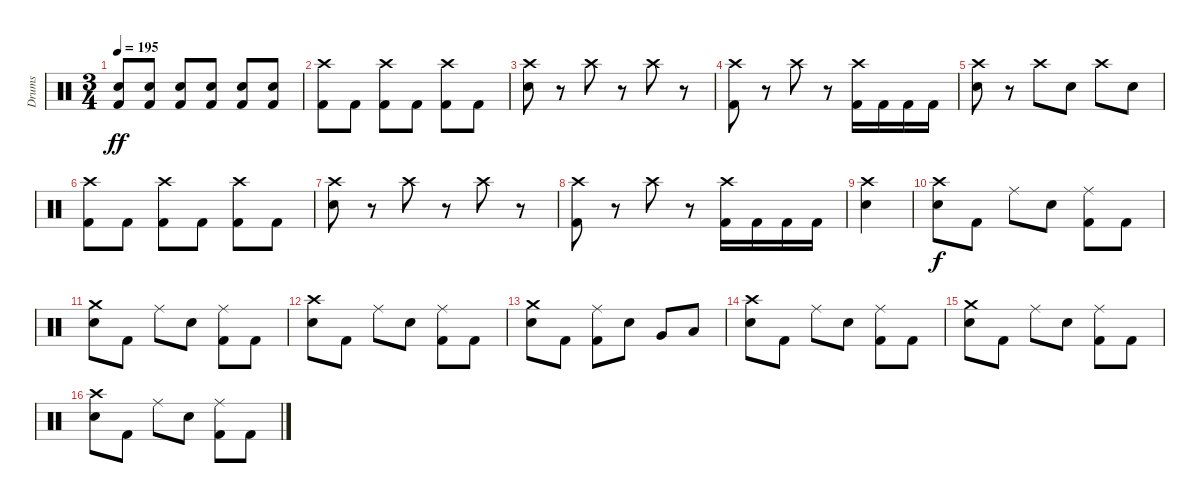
\track ("Drums" "Drums") {instrument percussion}
\staff {score}
\articulation defaults
\ts (3 4)
\tempo 195
\clef neutral
\ks c
("Electric Snare (hit)" "Kick (hit) 2").8{dy ff} ("Electric Snare (hit)" "Kick (hit) 2").8 ("Electric Snare (hit)" "Kick (hit) 2").8 ("Electric Snare (hit)" "Kick (hit) 2").8 ("Electric Snare (hit)" "Kick (hit) 2").8 ("Electric Snare (hit)" "Kick (hit) 2").8 |
("Crash high (hit)" "Kick (hit) 2").8 "Kick (hit) 2".8 ("Crash high (hit)" "Kick (hit) 2").8 "Kick (hit) 2".8 ("Crash high (hit)" "Kick (hit) 2").8 "Kick (hit) 2".8 |
("Crash high (hit)" "Electric Snare (hit)").8 r.8 "Crash high (hit)".8 r.8 "Crash high (hit)".8 r.8 |
("Crash high (hit)" "Kick (hit) 2").8 r.8 "Crash high (hit)".8 r.8 ("Crash high (hit)" "Kick (hit) 2").16 "Kick (hit) 2".16 "Kick (hit) 2".16 "Kick (hit) 2".16 |
("Crash high (hit)" "Electric Snare (hit)").8 r.8 "Crash high (hit)".8 "Electric Snare (hit)".8 "Crash high (hit)".8 "Electric Snare (hit)".8 |
("Crash high (hit)" "Kick (hit) 2").8 "Kick (hit) 2".8 ("Crash high (hit)" "Kick (hit) 2").8 "Kick (hit) 2".8 ("Crash high (hit)" "Kick (hit) 2").8 "Kick (hit) 2".8 |
("Crash high (hit)" "Electric Snare (hit)").8 r.8 "Crash high (hit)".8 r.8 "Crash high (hit)".8 r.8 |
("Crash high (hit)" "Kick (hit) 2").8 r.8 "Crash high (hit)".8 r.8 ("Crash high (hit)" "Kick (hit) 2").16 "Kick (hit) 2".16 "Kick (hit) 2".16 "Kick (hit) 2".16 |
("Crash high (hit)" "Electric Snare (hit)").4 |
("Crash high (hit)" "Electric Snare (hit)").8{dy f} "Kick (hit) 2".8 "Ride (middle)".8 "Electric Snare (hit)".8 ("Ride (middle)" "Kick (hit) 2").8 "Kick (hit) 2".8 |
("Crash medium (hit)" "Electric Snare (hit)").8 "Kick (hit) 2".8 "Ride (middle)".8 "Electric Snare (hit)".8 ("Ride (middle)" "Kick (hit) 2").8 "Kick (hit) 2".8 |
("Crash high (hit)" "Electric Snare (hit)").8 "Kick (hit) 2".8 "Ride (middle)".8 "Electric Snare (hit)".8 ("Ride (middle)" "Kick (hit) 2").8 "Kick (hit) 2".8 |
("Crash medium (hit)" "Electric Snare (hit)").8 "Kick (hit) 2".8 ("Ride (middle)" "Kick (hit) 2").8 "Electric Snare (hit)".8 "Very Low Tom (hit)".8 "Low Floor Tom (hit)".8 |
("Crash high (hit)" "Electric Snare (hit)").8 "Kick (hit) 2".8 "Ride (middle)".8 "Electric Snare (hit)".8 ("Ride (middle)" "Kick (hit) 2").8 "Kick (hit) 2".8 |
("Crash medium (hit)" "Electric Snare (hit)").8 "Kick (hit) 2".8 "Ride (middle)".8 "Electric Snare (hit)".8 ("Ride (middle)" "Kick (hit) 2").8 "Kick (hit) 2".8 |
("Crash high (hit)" "Electric Snare (hit)").8 "Kick (hit) 2".8 "Ride (middle)".8 "Electric Snare (hit)".8 ("Ride (middle)" "Kick (hit) 2").8 "Kick (hit) 2".8
